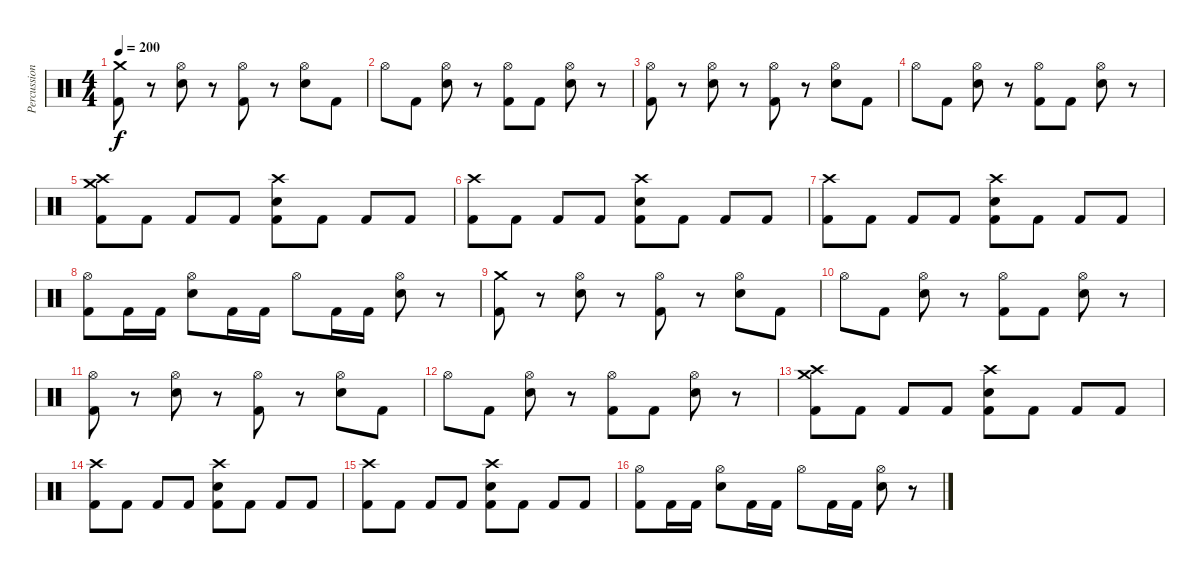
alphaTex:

\track ("Percussion" "Percussion") {instrument percussion}
\staff {score}
\articulation defaults
\ts (4 4)
\tempo 200
\clef neutral
\ks c
("Crash medium (hit)" "Kick (hit) 2").8{dy f} r.8 ("Hi-Hat (open)" "Snare (hit) 2").8 r.8 ("Hi-Hat (open)" "Kick (hit) 2").8 r.8 ("Hi-Hat (open)" "Snare (hit) 2").8 "Kick (hit) 2".8 |
"Hi-Hat (open)".8 "Kick (hit) 2".8 ("Hi-Hat (open)" "Snare (hit) 2").8 r.8 ("Hi-Hat (open)" "Kick (hit) 2").8 "Kick (hit) 2".8 ("Hi-Hat (open)" "Snare (hit) 2").8 r.8 |
("Hi-Hat (open)" "Kick (hit) 2").8 r.8 ("Hi-Hat (open)" "Snare (hit) 2").8 r.8 ("Hi-Hat (open)" "Kick (hit) 2").8 r.8 ("Hi-Hat (open)" "Snare (hit) 2").8 "Kick (hit) 2".8 |
"Hi-Hat (open)".8 "Kick (hit) 2".8 ("Hi-Hat (open)" "Snare (hit) 2").8 r.8 ("Hi-Hat (open)" "Kick (hit) 2").8 "Kick (hit) 2".8 ("Hi-Hat (open)" "Snare (hit) 2").8 r.8 |
("Crash high (hit)" "Crash medium (hit)" "Kick (hit) 2").8 "Kick (hit) 2".8 "Kick (hit) 2".8 "Kick (hit) 2".8 ("Crash high (hit)" "Snare (hit) 2" "Kick (hit) 2").8 "Kick (hit) 2".8 "Kick (hit) 2".8 "Kick (hit) 2".8 |
("Crash high (hit)" "Kick (hit) 2").8 "Kick (hit) 2".8 "Kick (hit) 2".8 "Kick (hit) 2".8 ("Crash high (hit)" "Snare (hit) 2" "Kick (hit) 2").8 "Kick (hit) 2".8 "Kick (hit) 2".8 "Kick (hit) 2".8 |
("Crash high (hit)" "Kick (hit) 2").8 "Kick (hit) 2".8 "Kick (hit) 2".8 "Kick (hit) 2".8 ("Crash high (hit)" "Snare (hit) 2" "Kick (hit) 2").8 "Kick (hit) 2".8 "Kick (hit) 2".8 "Kick (hit) 2".8 |
("Hi-Hat (open)" "Kick (hit) 2").8 "Kick (hit) 2".16 "Kick (hit) 2".16 ("Hi-Hat (open)" "Snare (hit) 2").8 "Kick (hit) 2".16 "Kick (hit) 2".16 "Hi-Hat (open)".8 "Kick (hit) 2".16 "Kick (hit) 2".16 ("Hi-Hat (open)" "Snare (hit) 2").8 r.8 |
("Crash medium (hit)" "Kick (hit) 2").8 r.8 ("Hi-Hat (open)" "Snare (hit) 2").8 r.8 ("Hi-Hat (open)" "Kick (hit) 2").8 r.8 ("Hi-Hat (open)" "Snare (hit) 2").8 "Kick (hit) 2".8 |
"Hi-Hat (open)".8 "Kick (hit) 2".8 ("Hi-Hat (open)" "Snare (hit) 2").8 r.8 ("Hi-Hat (open)" "Kick (hit) 2").8 "Kick (hit) 2".8 ("Hi-Hat (open)" "Snare (hit) 2").8 r.8 |
("Hi-Hat (open)" "Kick (hit) 2").8 r.8 ("Hi-Hat (open)" "Snare (hit) 2").8 r.8 ("Hi-Hat (open)" "Kick (hit) 2").8 r.8 ("Hi-Hat (open)" "Snare (hit) 2").8 "Kick (hit) 2".8 |
"Hi-Hat (open)".8 "Kick (hit) 2".8 ("Hi-Hat (open)" "Snare (hit) 2").8 r.8 ("Hi-Hat (open)" "Kick (hit) 2").8 "Kick (hit) 2".8 ("Hi-Hat (open)" "Snare (hit) 2").8 r.8 |
("Crash high (hit)" "Crash medium (hit)" "Kick (hit) 2").8 "Kick (hit) 2".8 "Kick (hit) 2".8 "Kick (hit) 2".8 ("Crash high (hit)" "Snare (hit) 2" "Kick (hit) 2").8 "Kick (hit) 2".8 "Kick (hit) 2".8 "Kick (hit) 2".8 |
("Crash high (hit)" "Kick (hit) 2").8 "Kick (hit) 2".8 "Kick (hit) 2".8 "Kick (hit) 2".8 ("Crash high (hit)" "Snare (hit) 2" "Kick (hit) 2").8 "Kick (hit) 2".8 "Kick (hit) 2".8 "Kick (hit) 2".8 |
("Crash high (hit)" "Kick (hit) 2").8 "Kick (hit) 2".8 "Kick (hit) 2".8 "Kick (hit) 2".8 ("Crash high (hit)" "Snare (hit) 2" "Kick (hit) 2").8 "Kick (hit) 2".8 "Kick (hit) 2".8 "Kick (hit) 2".8 |
("Hi-Hat (open)" "Kick (hit) 2").8 "Kick (hit) 2".16 "Kick (hit) 2".16 ("Hi-Hat (open)" "Snare (hit) 2").8 "Kick (hit) 2".16 "Kick (hit) 2".16 "Hi-Hat (open)".8 "Kick (hit) 2".16 "Kick (hit) 2".16 ("Hi-Hat (open)" "Snare (hit) 2").8 r.8
